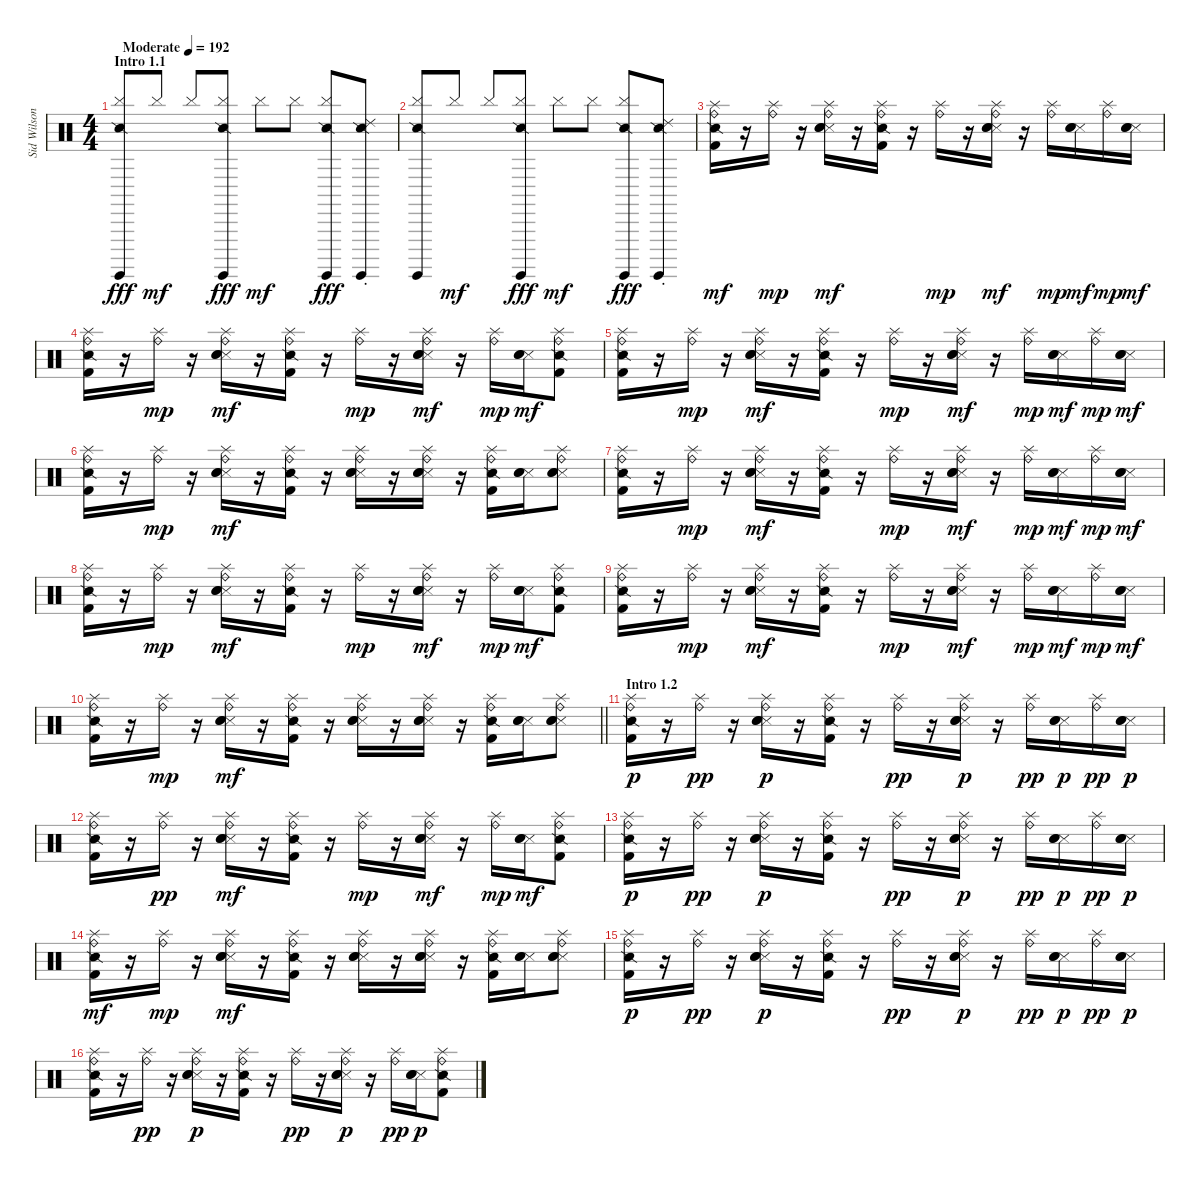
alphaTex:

\track ("Sid Wilson" "Sid Wilson") {instrument percussion}
\staff {score}
\articulation defaults
\ts (4 4)
\section ("" "Intro 1.1")
\tempo (192 "Moderate")
\clef neutral
\ks c
("Cymbal (hit)" "Snare (side stick) 2" "Surdo (hit)").8{dy fff} "Cymbal (hit)".8{dy mf} "Cymbal (hit)".8 ("Cymbal (hit)" "Snare (side stick) 2" "Surdo (hit)").8{dy fff} "Cymbal (hit)".8{dy mf} "Cymbal (hit)".8 ("Cymbal (hit)" "Snare (side stick) 2" "Surdo (hit)").8{dy fff} ("Ride (choke) 2" "Snare (side stick) 2" "Surdo (hit)").8 |
("Cymbal (hit)" "Snare (side stick) 2" "Surdo (hit)").8 "Cymbal (hit)".8{dy mf} "Cymbal (hit)".8 ("Cymbal (hit)" "Snare (side stick) 2" "Surdo (hit)").8{dy fff} "Cymbal (hit)".8{dy mf} "Cymbal (hit)".8 ("Cymbal (hit)" "Snare (side stick) 2" "Surdo (hit)").8{dy fff} ("Ride (choke) 2" "Snare (side stick) 2" "Surdo (hit)").8 |
("Splash (hit)" "Ride (bell)" "Snare (side stick) 2" "Kick (hit) 2").16{dy mf} r.16 ("Splash (hit)" "Ride (bell)").16{dy mp} r.16 ("Splash (hit)" "Ride (bell)" "Snare (side stick) 3" "Electric Snare (hit)" "Hand Clap (hit)").16{dy mf} r.16 ("Splash (hit)" "Ride (bell)" "Snare (side stick) 2" "Kick (hit) 2").16 r.16 ("Splash (hit)" "Ride (bell)").16{dy mp} r.16 ("Splash (hit)" "Ride (bell)" "Snare (side stick) 3" "Electric Snare (hit)" "Hand Clap (hit)").16{dy mf} r.16 ("Splash (hit)" "Ride (bell)").16{dy mp} ("Snare (side stick) 3" "Electric Snare (hit)" "Hand Clap (hit)").16{dy mf} ("Splash (hit)" "Ride (bell)").16{dy mp} ("Snare (side stick) 3" "Electric Snare (hit)" "Hand Clap (hit)").16{dy mf} |
("Splash (hit)" "Ride (bell)" "Snare (side stick) 2" "Kick (hit) 2").16 r.16 ("Splash (hit)" "Ride (bell)").16{dy mp} r.16 ("Splash (hit)" "Ride (bell)" "Snare (side stick) 3" "Electric Snare (hit)" "Hand Clap (hit)").16{dy mf} r.16 ("Splash (hit)" "Ride (bell)" "Snare (side stick) 2" "Kick (hit) 2").16 r.16 ("Splash (hit)" "Ride (bell)").16{dy mp} r.16 ("Splash (hit)" "Ride (bell)" "Snare (side stick) 3" "Electric Snare (hit)" "Hand Clap (hit)").16{dy mf} r.16 ("Splash (hit)" "Ride (bell)").16{dy mp} ("Snare (side stick) 3" "Electric Snare (hit)" "Hand Clap (hit)").16{dy mf} ("Splash (hit)" "Ride (bell)" "Snare (side stick) 2" "Kick (hit) 2").8 |
("Splash (hit)" "Ride (bell)" "Snare (side stick) 2" "Kick (hit) 2").16 r.16 ("Splash (hit)" "Ride (bell)").16{dy mp} r.16 ("Splash (hit)" "Ride (bell)" "Snare (side stick) 3" "Electric Snare (hit)" "Hand Clap (hit)").16{dy mf} r.16 ("Splash (hit)" "Ride (bell)" "Snare (side stick) 2" "Kick (hit) 2").16 r.16 ("Splash (hit)" "Ride (bell)").16{dy mp} r.16 ("Splash (hit)" "Ride (bell)" "Snare (side stick) 3" "Electric Snare (hit)" "Hand Clap (hit)").16{dy mf} r.16 ("Splash (hit)" "Ride (bell)").16{dy mp} ("Snare (side stick) 3" "Electric Snare (hit)" "Hand Clap (hit)").16{dy mf} ("Splash (hit)" "Ride (bell)").16{dy mp} ("Snare (side stick) 3" "Electric Snare (hit)" "Hand Clap (hit)").16{dy mf} |
("Splash (hit)" "Ride (bell)" "Snare (side stick) 2" "Kick (hit) 2").16 r.16 ("Splash (hit)" "Ride (bell)").16{dy mp} r.16 ("Splash (hit)" "Ride (bell)" "Snare (side stick) 3" "Electric Snare (hit)" "Hand Clap (hit)").16{dy mf} r.16 ("Splash (hit)" "Ride (bell)" "Snare (side stick) 2" "Kick (hit) 2").16 r.16 ("Splash (hit)" "Ride (bell)" "Snare (side stick) 3" "Electric Snare (hit)" "Hand Clap (hit)").16 r.16 ("Splash (hit)" "Ride (bell)" "Snare (side stick) 3" "Electric Snare (hit)" "Hand Clap (hit)").16 r.16 ("Splash (hit)" "Ride (bell)" "Snare (side stick) 2" "Kick (hit) 2").16 ("Snare (side stick) 3" "Electric Snare (hit)" "Hand Clap (hit)").16 ("Splash (hit)" "Ride (bell)" "Snare (side stick) 3" "Electric Snare (hit)" "Hand Clap (hit)").8 |
("Splash (hit)" "Ride (bell)" "Snare (side stick) 2" "Kick (hit) 2").16 r.16 ("Splash (hit)" "Ride (bell)").16{dy mp} r.16 ("Splash (hit)" "Ride (bell)" "Snare (side stick) 3" "Electric Snare (hit)" "Hand Clap (hit)").16{dy mf} r.16 ("Splash (hit)" "Ride (bell)" "Snare (side stick) 2" "Kick (hit) 2").16 r.16 ("Splash (hit)" "Ride (bell)").16{dy mp} r.16 ("Splash (hit)" "Ride (bell)" "Snare (side stick) 3" "Electric Snare (hit)" "Hand Clap (hit)").16{dy mf} r.16 ("Splash (hit)" "Ride (bell)").16{dy mp} ("Snare (side stick) 3" "Electric Snare (hit)" "Hand Clap (hit)").16{dy mf} ("Splash (hit)" "Ride (bell)").16{dy mp} ("Snare (side stick) 3" "Electric Snare (hit)" "Hand Clap (hit)").16{dy mf} |
("Splash (hit)" "Ride (bell)" "Snare (side stick) 2" "Kick (hit) 2").16 r.16 ("Splash (hit)" "Ride (bell)").16{dy mp} r.16 ("Splash (hit)" "Ride (bell)" "Snare (side stick) 3" "Electric Snare (hit)" "Hand Clap (hit)").16{dy mf} r.16 ("Splash (hit)" "Ride (bell)" "Snare (side stick) 2" "Kick (hit) 2").16 r.16 ("Splash (hit)" "Ride (bell)").16{dy mp} r.16 ("Splash (hit)" "Ride (bell)" "Snare (side stick) 3" "Electric Snare (hit)" "Hand Clap (hit)").16{dy mf} r.16 ("Splash (hit)" "Ride (bell)").16{dy mp} ("Snare (side stick) 3" "Electric Snare (hit)" "Hand Clap (hit)").16{dy mf} ("Splash (hit)" "Ride (bell)" "Snare (side stick) 2" "Kick (hit) 2").8 |
("Splash (hit)" "Ride (bell)" "Snare (side stick) 2" "Kick (hit) 2").16 r.16 ("Splash (hit)" "Ride (bell)").16{dy mp} r.16 ("Splash (hit)" "Ride (bell)" "Snare (side stick) 3" "Electric Snare (hit)" "Hand Clap (hit)").16{dy mf} r.16 ("Splash (hit)" "Ride (bell)" "Snare (side stick) 2" "Kick (hit) 2").16 r.16 ("Splash (hit)" "Ride (bell)").16{dy mp} r.16 ("Splash (hit)" "Ride (bell)" "Snare (side stick) 3" "Electric Snare (hit)" "Hand Clap (hit)").16{dy mf} r.16 ("Splash (hit)" "Ride (bell)").16{dy mp} ("Snare (side stick) 3" "Electric Snare (hit)" "Hand Clap (hit)").16{dy mf} ("Splash (hit)" "Ride (bell)").16{dy mp} ("Snare (side stick) 3" "Electric Snare (hit)" "Hand Clap (hit)").16{dy mf} |
\barLineRight lightlight
("Splash (hit)" "Ride (bell)" "Snare (side stick) 2" "Kick (hit) 2").16 r.16 ("Splash (hit)" "Ride (bell)").16{dy mp} r.16 ("Splash (hit)" "Ride (bell)" "Snare (side stick) 3" "Electric Snare (hit)" "Hand Clap (hit)").16{dy mf} r.16 ("Splash (hit)" "Ride (bell)" "Snare (side stick) 2" "Kick (hit) 2").16 r.16 ("Splash (hit)" "Ride (bell)" "Snare (side stick) 3" "Electric Snare (hit)" "Hand Clap (hit)").16 r.16 ("Splash (hit)" "Ride (bell)" "Snare (side stick) 3" "Electric Snare (hit)" "Hand Clap (hit)").16 r.16 ("Splash (hit)" "Ride (bell)" "Snare (side stick) 2" "Kick (hit) 2").16 ("Snare (side stick) 3" "Electric Snare (hit)" "Hand Clap (hit)").16 ("Splash (hit)" "Ride (bell)" "Snare (side stick) 3" "Electric Snare (hit)" "Hand Clap (hit)").8 |
\section ("" "Intro 1.2")
("Splash (hit)" "Ride (bell)" "Snare (side stick) 2" "Kick (hit) 2").16{dy p} r.16 ("Splash (hit)" "Ride (bell)").16{dy pp} r.16 ("Splash (hit)" "Ride (bell)" "Snare (side stick) 3" "Electric Snare (hit)" "Hand Clap (hit)").16{dy p} r.16 ("Splash (hit)" "Ride (bell)" "Snare (side stick) 2" "Kick (hit) 2").16 r.16 ("Splash (hit)" "Ride (bell)").16{dy pp} r.16 ("Splash (hit)" "Ride (bell)" "Snare (side stick) 3" "Electric Snare (hit)" "Hand Clap (hit)").16{dy p} r.16 ("Splash (hit)" "Ride (bell)").16{dy pp} ("Snare (side stick) 3" "Electric Snare (hit)" "Hand Clap (hit)").16{dy p} ("Splash (hit)" "Ride (bell)").16{dy pp} ("Snare (side stick) 3" "Electric Snare (hit)" "Hand Clap (hit)").16{dy p} |
("Splash (hit)" "Ride (bell)" "Snare (side stick) 2" "Kick (hit) 2").16 r.16 ("Splash (hit)" "Ride (bell)").16{dy pp} r.16 ("Splash (hit)" "Ride (bell)" "Snare (side stick) 3" "Electric Snare (hit)" "Hand Clap (hit)").16{dy mf} r.16 ("Splash (hit)" "Ride (bell)" "Snare (side stick) 2" "Kick (hit) 2").16 r.16 ("Splash (hit)" "Ride (bell)").16{dy mp} r.16 ("Splash (hit)" "Ride (bell)" "Snare (side stick) 3" "Electric Snare (hit)" "Hand Clap (hit)").16{dy mf} r.16 ("Splash (hit)" "Ride (bell)").16{dy mp} ("Snare (side stick) 3" "Electric Snare (hit)" "Hand Clap (hit)").16{dy mf} ("Splash (hit)" "Ride (bell)" "Snare (side stick) 2" "Kick (hit) 2").8 |
("Splash (hit)" "Ride (bell)" "Snare (side stick) 2" "Kick (hit) 2").16{dy p} r.16 ("Splash (hit)" "Ride (bell)").16{dy pp} r.16 ("Splash (hit)" "Ride (bell)" "Snare (side stick) 3" "Electric Snare (hit)" "Hand Clap (hit)").16{dy p} r.16 ("Splash (hit)" "Ride (bell)" "Snare (side stick) 2" "Kick (hit) 2").16 r.16 ("Splash (hit)" "Ride (bell)").16{dy pp} r.16 ("Splash (hit)" "Ride (bell)" "Snare (side stick) 3" "Electric Snare (hit)" "Hand Clap (hit)").16{dy p} r.16 ("Splash (hit)" "Ride (bell)").16{dy pp} ("Snare (side stick) 3" "Electric Snare (hit)" "Hand Clap (hit)").16{dy p} ("Splash (hit)" "Ride (bell)").16{dy pp} ("Snare (side stick) 3" "Electric Snare (hit)" "Hand Clap (hit)").16{dy p} |
("Splash (hit)" "Ride (bell)" "Snare (side stick) 2" "Kick (hit) 2").16{dy mf} r.16 ("Splash (hit)" "Ride (bell)").16{dy mp} r.16 ("Splash (hit)" "Ride (bell)" "Snare (side stick) 3" "Electric Snare (hit)" "Hand Clap (hit)").16{dy mf} r.16 ("Splash (hit)" "Ride (bell)" "Snare (side stick) 2" "Kick (hit) 2").16 r.16 ("Splash (hit)" "Ride (bell)" "Snare (side stick) 3" "Electric Snare (hit)" "Hand Clap (hit)").16 r.16 ("Splash (hit)" "Ride (bell)" "Snare (side stick) 3" "Electric Snare (hit)" "Hand Clap (hit)").16 r.16 ("Splash (hit)" "Ride (bell)" "Snare (side stick) 2" "Kick (hit) 2").16 ("Snare (side stick) 3" "Electric Snare (hit)" "Hand Clap (hit)").16 ("Splash (hit)" "Ride (bell)" "Snare (side stick) 3" "Electric Snare (hit)" "Hand Clap (hit)").8 |
("Splash (hit)" "Ride (bell)" "Snare (side stick) 2" "Kick (hit) 2").16{dy p} r.16 ("Splash (hit)" "Ride (bell)").16{dy pp} r.16 ("Splash (hit)" "Ride (bell)" "Snare (side stick) 3" "Electric Snare (hit)" "Hand Clap (hit)").16{dy p} r.16 ("Splash (hit)" "Ride (bell)" "Snare (side stick) 2" "Kick (hit) 2").16 r.16 ("Splash (hit)" "Ride (bell)").16{dy pp} r.16 ("Splash (hit)" "Ride (bell)" "Snare (side stick) 3" "Electric Snare (hit)" "Hand Clap (hit)").16{dy p} r.16 ("Splash (hit)" "Ride (bell)").16{dy pp} ("Snare (side stick) 3" "Electric Snare (hit)" "Hand Clap (hit)").16{dy p} ("Splash (hit)" "Ride (bell)").16{dy pp} ("Snare (side stick) 3" "Electric Snare (hit)" "Hand Clap (hit)").16{dy p} |
("Splash (hit)" "Ride (bell)" "Snare (side stick) 2" "Kick (hit) 2").16 r.16 ("Splash (hit)" "Ride (bell)").16{dy pp} r.16 ("Splash (hit)" "Ride (bell)" "Snare (side stick) 3" "Electric Snare (hit)" "Hand Clap (hit)").16{dy p} r.16 ("Splash (hit)" "Ride (bell)" "Snare (side stick) 2" "Kick (hit) 2").16 r.16 ("Splash (hit)" "Ride (bell)").16{dy pp} r.16 ("Splash (hit)" "Ride (bell)" "Snare (side stick) 3" "Electric Snare (hit)" "Hand Clap (hit)").16{dy p} r.16 ("Splash (hit)" "Ride (bell)").16{dy pp} ("Snare (side stick) 3" "Electric Snare (hit)" "Hand Clap (hit)").16{dy p} ("Splash (hit)" "Ride (bell)" "Snare (side stick) 2" "Kick (hit) 2").8
